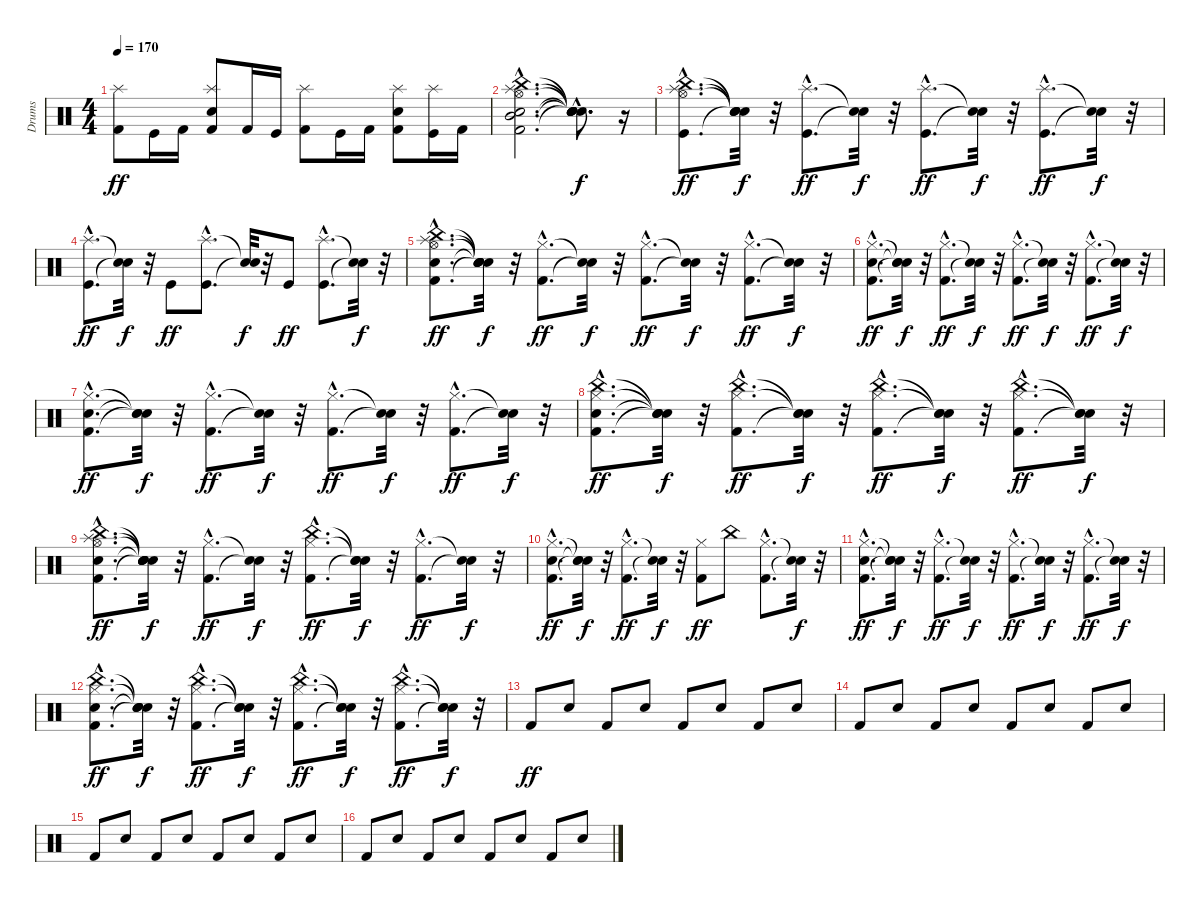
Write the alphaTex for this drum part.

\track ("Drums" "Drums") {instrument percussion}
\staff {score}
\articulation defaults
\ts (4 4)
\tempo 170
\clef neutral
\ks c
("Kick (hit) 2" "Splash (hit)").8{dy ff} "Kick (hit)".16 "Kick (hit) 2".16 ("Kick (hit) 2" "Electric Snare (hit)" "Splash (hit)").8 "Kick (hit) 2".16 "Kick (hit)".16 ("Kick (hit) 2" "Splash (hit)").8 "Kick (hit)".16 "Kick (hit) 2".16 ("Kick (hit) 2" "Electric Snare (hit)" "Splash (hit)").8 ("Kick (hit)" "Splash (hit)").16 "Kick (hit) 2".16 |
("Kick (hit) 2"{hac} "Electric Snare (hit)"{hac} "Hi-Hat (open)"{hac} "Mid Tom (hit)"{hac} "China (hit)"{hac} "Splash (hit)"{hac}).2{d} ("Snare (hit)"{hac t} "Snare (hit)"{hac t} "Snare (hit)"{hac t} "Snare (hit)"{hac t} "Snare (hit)"{hac t} "Snare (hit)"{hac t}).8{d dy f} r.16 |
("Kick (hit)"{hac} "Hi-Hat (open)"{hac} "China (hit)"{hac} "Splash (hit)"{hac}).8{d dy ff} ("Snare (hit)"{t} "Snare (hit)"{t} "Snare (hit)"{t} "Snare (hit)"{t}).32{dy f} r.32 ("Kick (hit)"{hac} "Splash (hit)"{hac}).8{d dy ff} ("Snare (hit)"{t} "Snare (hit)"{t}).32{dy f} r.32 ("Kick (hit)"{hac} "Splash (hit)"{hac}).8{d dy ff} ("Snare (hit)"{t} "Snare (hit)"{t}).32{dy f} r.32 ("Kick (hit)"{hac} "Splash (hit)"{hac}).8{d dy ff} ("Snare (hit)"{t} "Snare (hit)"{t}).32{dy f} r.32 |
("Kick (hit)"{hac} "Splash (hit)"{hac}).8{d dy ff} ("Snare (hit)"{t} "Snare (hit)"{t}).32{dy f} r.32 "Kick (hit)".8{dy ff} ("Kick (hit)"{hac} "Splash (hit)"{hac}).8{d} ("Snare (hit)"{t} "Snare (hit)"{t}).32{dy f} r.32 "Kick (hit)".8{dy ff} ("Kick (hit)"{hac} "Splash (hit)"{hac}).8{d} ("Snare (hit)"{t} "Snare (hit)"{t}).32{dy f} r.32 |
("Kick (hit) 2"{hac} "Electric Snare (hit)"{hac} "Hi-Hat (open)"{hac} "China (hit)"{hac} "Splash (hit)"{hac}).8{d dy ff} ("Snare (hit)"{t} "Snare (hit)"{t} "Snare (hit)"{t} "Snare (hit)"{t} "Snare (hit)"{t}).32{dy f} r.32 ("Kick (hit) 2"{hac} "Hi-Hat (closed)"{hac}).8{d dy ff} ("Snare (hit)"{t} "Snare (hit)"{t}).32{dy f} r.32 ("Kick (hit) 2"{hac} "Hi-Hat (closed)"{hac}).8{d dy ff} ("Snare (hit)"{t} "Snare (hit)"{t}).32{dy f} r.32 ("Kick (hit) 2"{hac} "Hi-Hat (closed)"{hac}).8{d dy ff} ("Snare (hit)"{t} "Snare (hit)"{t}).32{dy f} r.32 |
("Kick (hit) 2"{hac} "Electric Snare (hit)"{hac} "Hi-Hat (closed)"{hac}).8{d dy ff} ("Snare (hit)"{t} "Snare (hit)"{t} "Snare (hit)"{t}).32{dy f} r.32 ("Kick (hit) 2"{hac} "Hi-Hat (closed)"{hac}).8{d dy ff} ("Snare (hit)"{t} "Snare (hit)"{t}).32{dy f} r.32 ("Kick (hit) 2"{hac} "Hi-Hat (closed)"{hac}).8{d dy ff} ("Snare (hit)"{t} "Snare (hit)"{t}).32{dy f} r.32 ("Kick (hit) 2"{hac} "Hi-Hat (closed)"{hac}).8{d dy ff} ("Snare (hit)"{t} "Snare (hit)"{t}).32{dy f} r.32 |
("Kick (hit) 2"{hac} "Electric Snare (hit)"{hac} "Hi-Hat (closed)"{hac}).8{d dy ff} ("Snare (hit)"{t} "Snare (hit)"{t} "Snare (hit)"{t}).32{dy f} r.32 ("Kick (hit) 2"{hac} "Hi-Hat (closed)"{hac}).8{d dy ff} ("Snare (hit)"{t} "Snare (hit)"{t}).32{dy f} r.32 ("Kick (hit) 2"{hac} "Hi-Hat (closed)"{hac}).8{d dy ff} ("Snare (hit)"{t} "Snare (hit)"{t}).32{dy f} r.32 ("Kick (hit) 2"{hac} "Hi-Hat (closed)"{hac}).8{d dy ff} ("Snare (hit)"{t} "Snare (hit)"{t}).32{dy f} r.32 |
("Kick (hit) 2"{hac} "Electric Snare (hit)"{hac} "Hi-Hat (closed)"{hac} "China (hit)"{hac}).8{d dy ff} ("Snare (hit)"{t} "Snare (hit)"{t} "Snare (hit)"{t} "Snare (hit)"{t}).32{dy f} r.32 ("Kick (hit) 2"{hac} "Hi-Hat (closed)"{hac} "China (hit)"{hac}).8{d dy ff} ("Snare (hit)"{t} "Snare (hit)"{t} "Snare (hit)"{t}).32{dy f} r.32 ("Kick (hit) 2"{hac} "Hi-Hat (closed)"{hac} "China (hit)"{hac}).8{d dy ff} ("Snare (hit)"{t} "Snare (hit)"{t} "Snare (hit)"{t}).32{dy f} r.32 ("Kick (hit) 2"{hac} "Hi-Hat (closed)"{hac} "China (hit)"{hac}).8{d dy ff} ("Snare (hit)"{t} "Snare (hit)"{t} "Snare (hit)"{t}).32{dy f} r.32 |
("Kick (hit) 2"{hac} "Electric Snare (hit)"{hac} "Hi-Hat (open)"{hac} "China (hit)"{hac} "Splash (hit)"{hac}).8{d dy ff} ("Snare (hit)"{t} "Snare (hit)"{t} "Snare (hit)"{t} "Snare (hit)"{t} "Snare (hit)"{t}).32{dy f} r.32 ("Kick (hit) 2"{hac} "Hi-Hat (closed)"{hac}).8{d dy ff} ("Snare (hit)"{t} "Snare (hit)"{t}).32{dy f} r.32 ("Kick (hit) 2"{hac} "Hi-Hat (closed)"{hac} "China (hit)"{hac}).8{d dy ff} ("Snare (hit)"{t} "Snare (hit)"{t} "Snare (hit)"{t}).32{dy f} r.32 ("Kick (hit) 2"{hac} "Hi-Hat (closed)"{hac}).8{d dy ff} ("Snare (hit)"{t} "Snare (hit)"{t}).32{dy f} r.32 |
("Kick (hit) 2"{hac} "Electric Snare (hit)"{hac} "Hi-Hat (closed)"{hac}).8{d dy ff} ("Snare (hit)"{t} "Snare (hit)"{t} "Snare (hit)"{t}).32{dy f} r.32 ("Kick (hit) 2"{hac} "Hi-Hat (closed)"{hac}).8{d dy ff} ("Snare (hit)"{t} "Snare (hit)"{t}).32{dy f} r.32 ("Kick (hit) 2" "Hi-Hat (closed)").8{dy ff} "China (hit)".8 ("Kick (hit) 2"{hac} "Hi-Hat (closed)"{hac}).8{d} ("Snare (hit)"{t} "Snare (hit)"{t}).32{dy f} r.32 |
("Kick (hit) 2"{hac} "Electric Snare (hit)"{hac} "Hi-Hat (closed)"{hac}).8{d dy ff} ("Snare (hit)"{t} "Snare (hit)"{t} "Snare (hit)"{t}).32{dy f} r.32 ("Kick (hit) 2"{hac} "Hi-Hat (closed)"{hac}).8{d dy ff} ("Snare (hit)"{t} "Snare (hit)"{t}).32{dy f} r.32 ("Kick (hit) 2"{hac} "Hi-Hat (closed)"{hac}).8{d dy ff} ("Snare (hit)"{t} "Snare (hit)"{t}).32{dy f} r.32 ("Kick (hit) 2"{hac} "Hi-Hat (closed)"{hac}).8{d dy ff} ("Snare (hit)"{t} "Snare (hit)"{t}).32{dy f} r.32 |
("Kick (hit) 2"{hac} "Electric Snare (hit)"{hac} "Hi-Hat (closed)"{hac} "China (hit)"{hac}).8{d dy ff} ("Snare (hit)"{t} "Snare (hit)"{t} "Snare (hit)"{t} "Snare (hit)"{t}).32{dy f} r.32 ("Kick (hit) 2"{hac} "Hi-Hat (closed)"{hac} "China (hit)"{hac}).8{d dy ff} ("Snare (hit)"{t} "Snare (hit)"{t} "Snare (hit)"{t}).32{dy f} r.32 ("Kick (hit) 2"{hac} "Hi-Hat (closed)"{hac} "China (hit)"{hac}).8{d dy ff} ("Snare (hit)"{t} "Snare (hit)"{t} "Snare (hit)"{t}).32{dy f} r.32 ("Kick (hit) 2"{hac} "Hi-Hat (closed)"{hac} "China (hit)"{hac}).8{d dy ff} ("Snare (hit)"{t} "Snare (hit)"{t} "Snare (hit)"{t}).32{dy f} r.32 |
"Kick (hit) 2".8{dy ff} "Electric Snare (hit)".8 "Kick (hit) 2".8 "Electric Snare (hit)".8 "Kick (hit) 2".8 "Electric Snare (hit)".8 "Kick (hit) 2".8 "Electric Snare (hit)".8 |
"Kick (hit) 2".8 "Electric Snare (hit)".8 "Kick (hit) 2".8 "Electric Snare (hit)".8 "Kick (hit) 2".8 "Electric Snare (hit)".8 "Kick (hit) 2".8 "Electric Snare (hit)".8 |
"Kick (hit) 2".8 "Electric Snare (hit)".8 "Kick (hit) 2".8 "Electric Snare (hit)".8 "Kick (hit) 2".8 "Electric Snare (hit)".8 "Kick (hit) 2".8 "Electric Snare (hit)".8 |
"Kick (hit) 2".8 "Electric Snare (hit)".8 "Kick (hit) 2".8 "Electric Snare (hit)".8 "Kick (hit) 2".8 "Electric Snare (hit)".8 "Kick (hit) 2".8 "Electric Snare (hit)".8
